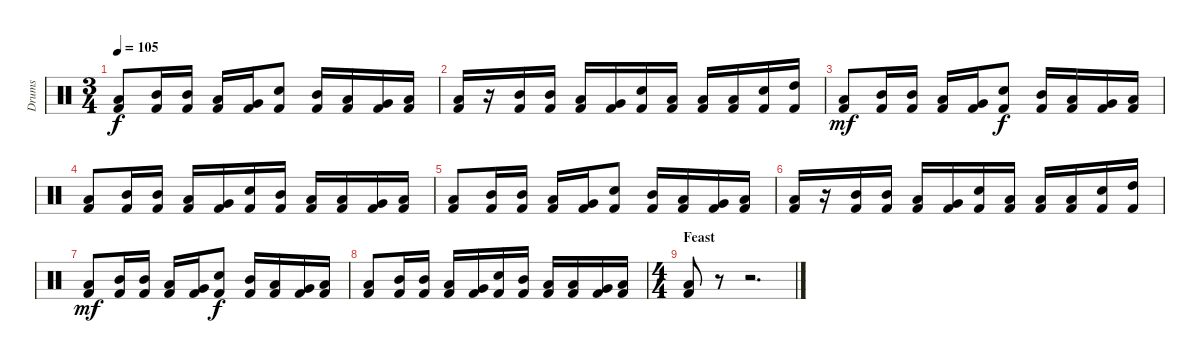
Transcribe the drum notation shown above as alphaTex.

\track ("Drums" "Drums") {instrument percussion}
\staff {score}
\articulation defaults
\ts (3 4)
\tempo 105
\clef neutral
\ks c
("Low Tom (hit)" "Kick (hit) 2").8{dy f} ("Mid Tom (hit)" "Kick (hit) 2").16 ("Mid Tom (hit)" "Kick (hit) 2").16 ("Low Tom (hit)" "Kick (hit) 2").16 ("Very Low Tom (hit)" "Kick (hit) 2").16 ("Electric Snare (hit)" "Kick (hit) 2").8 ("Mid Tom (hit)" "Kick (hit) 2").16 ("Low Tom (hit)" "Kick (hit) 2").16 ("Very Low Tom (hit)" "Kick (hit) 2").16 ("Low Floor Tom (hit)" "Kick (hit) 2").16 |
("Low Tom (hit)" "Kick (hit) 2").16 r.16 ("Mid Tom (hit)" "Kick (hit) 2").16 ("Mid Tom (hit)" "Kick (hit) 2").16 ("Low Tom (hit)" "Kick (hit) 2").16 ("Very Low Tom (hit)" "Kick (hit) 2").16 ("Electric Snare (hit)" "Kick (hit) 2").16 ("Low Tom (hit)" "Kick (hit) 2").16 ("Low Tom (hit)" "Kick (hit) 2").16 ("Low Tom (hit)" "Kick (hit) 2").16 ("Electric Snare (hit)" "Kick (hit) 2").16 ("High Tom (hit)" "Kick (hit) 2").16 |
("Low Tom (hit)" "Kick (hit) 2").8{dy mf} ("Mid Tom (hit)" "Kick (hit) 2").16 ("Mid Tom (hit)" "Kick (hit) 2").16 ("Low Tom (hit)" "Kick (hit) 2").16 ("Very Low Tom (hit)" "Kick (hit) 2").16 ("Electric Snare (hit)" "Kick (hit) 2").8{dy f} ("Mid Tom (hit)" "Kick (hit) 2").16 ("Low Tom (hit)" "Kick (hit) 2").16 ("Very Low Tom (hit)" "Kick (hit) 2").16 ("Low Floor Tom (hit)" "Kick (hit) 2").16 |
("Low Tom (hit)" "Kick (hit) 2").8 ("Mid Tom (hit)" "Kick (hit) 2").16 ("Mid Tom (hit)" "Kick (hit) 2").16 ("Low Tom (hit)" "Kick (hit) 2").16 ("Very Low Tom (hit)" "Kick (hit) 2").16 ("Electric Snare (hit)" "Kick (hit) 2").16 ("Mid Tom (hit)" "Kick (hit) 2").16 ("Low Tom (hit)" "Kick (hit) 2").16 ("Low Tom (hit)" "Kick (hit) 2").16 ("Very Low Tom (hit)" "Kick (hit) 2").16 ("Low Floor Tom (hit)" "Kick (hit) 2").16 |
("Low Tom (hit)" "Kick (hit) 2").8 ("Mid Tom (hit)" "Kick (hit) 2").16 ("Mid Tom (hit)" "Kick (hit) 2").16 ("Low Tom (hit)" "Kick (hit) 2").16 ("Very Low Tom (hit)" "Kick (hit) 2").16 ("Electric Snare (hit)" "Kick (hit) 2").8 ("Mid Tom (hit)" "Kick (hit) 2").16 ("Low Tom (hit)" "Kick (hit) 2").16 ("Very Low Tom (hit)" "Kick (hit) 2").16 ("Low Floor Tom (hit)" "Kick (hit) 2").16 |
("Low Tom (hit)" "Kick (hit) 2").16 r.16 ("Mid Tom (hit)" "Kick (hit) 2").16 ("Mid Tom (hit)" "Kick (hit) 2").16 ("Low Tom (hit)" "Kick (hit) 2").16 ("Very Low Tom (hit)" "Kick (hit) 2").16 ("Electric Snare (hit)" "Kick (hit) 2").16 ("Low Tom (hit)" "Kick (hit) 2").16 ("Low Tom (hit)" "Kick (hit) 2").16 ("Low Tom (hit)" "Kick (hit) 2").16 ("Electric Snare (hit)" "Kick (hit) 2").16 ("High Tom (hit)" "Kick (hit) 2").16 |
("Low Tom (hit)" "Kick (hit) 2").8{dy mf} ("Mid Tom (hit)" "Kick (hit) 2").16 ("Mid Tom (hit)" "Kick (hit) 2").16 ("Low Tom (hit)" "Kick (hit) 2").16 ("Very Low Tom (hit)" "Kick (hit) 2").16 ("Electric Snare (hit)" "Kick (hit) 2").8{dy f} ("Mid Tom (hit)" "Kick (hit) 2").16 ("Low Tom (hit)" "Kick (hit) 2").16 ("Very Low Tom (hit)" "Kick (hit) 2").16 ("Low Floor Tom (hit)" "Kick (hit) 2").16 |
("Low Tom (hit)" "Kick (hit) 2").8 ("Mid Tom (hit)" "Kick (hit) 2").16 ("Mid Tom (hit)" "Kick (hit) 2").16 ("Low Tom (hit)" "Kick (hit) 2").16 ("Very Low Tom (hit)" "Kick (hit) 2").16 ("Electric Snare (hit)" "Kick (hit) 2").16 ("Mid Tom (hit)" "Kick (hit) 2").16 ("Low Tom (hit)" "Kick (hit) 2").16 ("Low Tom (hit)" "Kick (hit) 2").16 ("Very Low Tom (hit)" "Kick (hit) 2").16 ("Low Floor Tom (hit)" "Kick (hit) 2").16 |
\ts (4 4)
\section ("" "Feast")
("Low Tom (hit)" "Kick (hit) 2").8 r.8 r.2{d}
